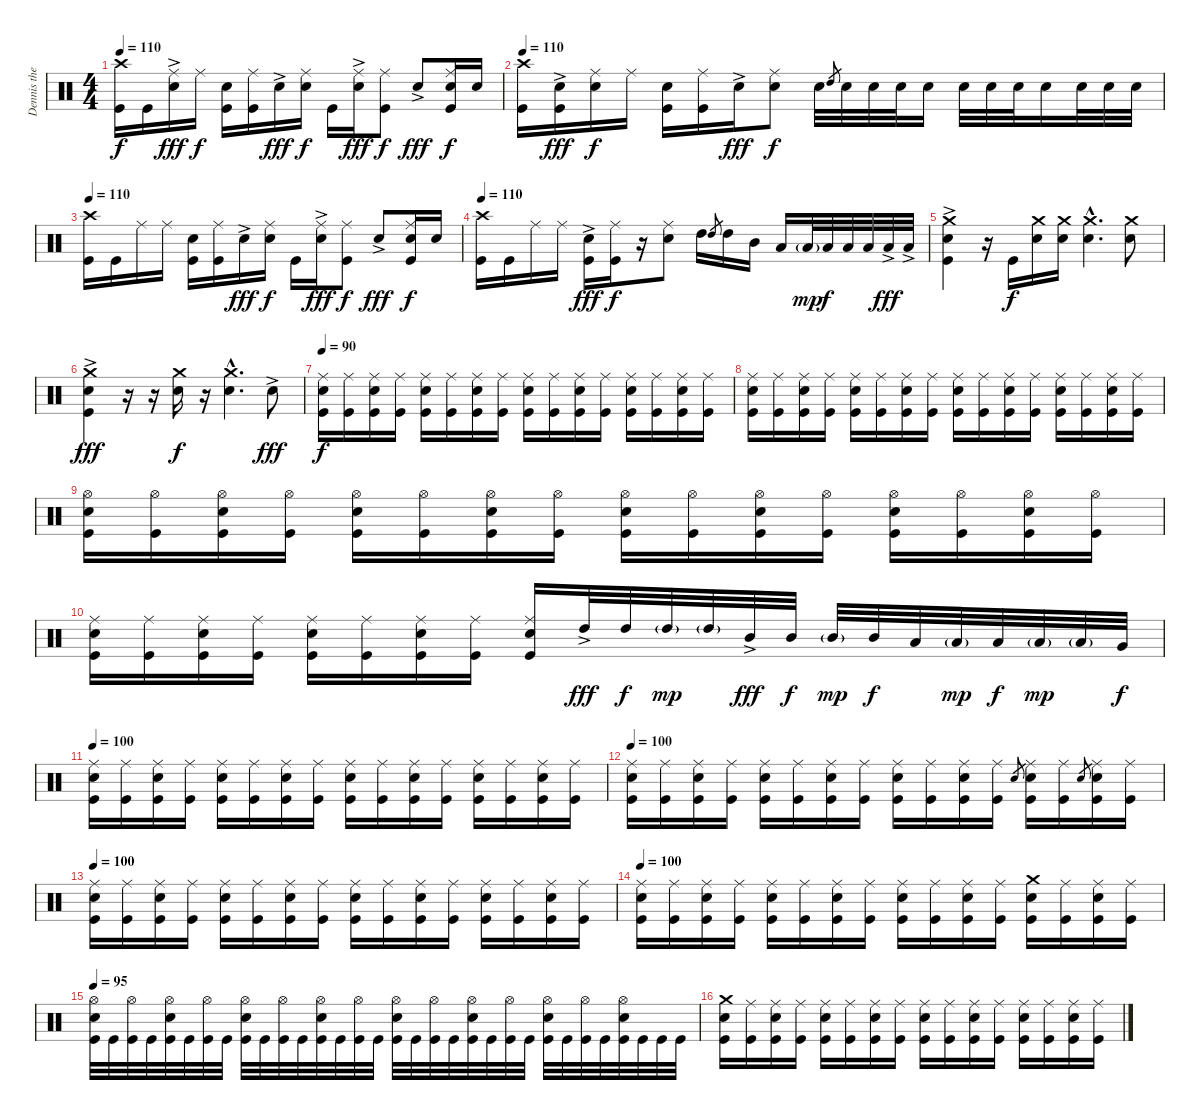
\track ("Dennis the Menace" "Dennis the") {instrument percussion}
\staff {score}
\articulation defaults
\ts (4 4)
\tempo 110
\clef neutral
\ks c
("Crash high (hit)" "Kick (hit)").16{dy f} "Kick (hit)".16 ("Ride (middle)" "Electric Snare (hit)"{ac}).16{dy fff} "Ride (middle)".16{dy f} ("Electric Snare (hit)" "Kick (hit)").16 ("Ride (middle)" "Kick (hit)").16 "Electric Snare (hit)"{ac}.16{dy fff} ("Ride (middle)" "Electric Snare (hit)").16{dy f} "Kick (hit)".16 ("Ride (middle)" "Electric Snare (hit)"{ac}).16{dy fff} ("Ride (middle)" "Kick (hit)").8{dy f} "Electric Snare (hit)"{ac}.8{dy fff} ("Ride (middle)" "Electric Snare (hit)" "Kick (hit)").16{dy f} "Electric Snare (hit)".16 |
\tempo 110
("Crash high (hit)" "Kick (hit)").16 ("Electric Snare (hit)"{ac} "Kick (hit)").16{dy fff} ("Ride (middle)" "Electric Snare (hit)").16{dy f} "Ride (middle)".16 ("Electric Snare (hit)" "Kick (hit)").16 ("Ride (middle)" "Kick (hit)").16 "Electric Snare (hit)"{ac}.16{dy fff} ("Ride (middle)" "Electric Snare (hit)").8{dy f} "Electric Snare (hit)".32 "High Tom (hit)".8{gr} "Electric Snare (hit)".32 "Electric Snare (hit)".32 "Electric Snare (hit)".32 "Electric Snare (hit)".16 "Electric Snare (hit)".32 "Electric Snare (hit)".32 "Electric Snare (hit)".32 "Electric Snare (hit)".16 "Electric Snare (hit)".32 "Electric Snare (hit)".32 "Electric Snare (hit)".32 |
\tempo 110
("Crash high (hit)" "Kick (hit)").16 "Kick (hit)".16 "Ride (middle)".16 "Ride (middle)".16 ("Electric Snare (hit)" "Kick (hit)").16 ("Ride (middle)" "Kick (hit)").16 "Electric Snare (hit)"{ac}.16{dy fff} ("Ride (middle)" "Electric Snare (hit)").16{dy f} "Kick (hit)".16 ("Ride (middle)" "Electric Snare (hit)"{ac}).16{dy fff} ("Ride (middle)" "Kick (hit)").8{dy f} "Electric Snare (hit)"{ac}.8{dy fff} ("Ride (middle)" "Electric Snare (hit)" "Kick (hit)").16{dy f} "Electric Snare (hit)".16 |
\tempo 110
("Crash high (hit)" "Kick (hit)").16 "Kick (hit)".16 "Ride (middle)".16 "Ride (middle)".16 ("Electric Snare (hit)"{ac} "Kick (hit)").16{dy fff} ("Ride (middle)" "Kick (hit)").16{dy f} r.16 ("Ride (middle)" "Electric Snare (hit)").8 "High Tom (hit)".16 "High Tom (hit)".8{gr} "High Tom (hit)".16 "Mid Tom (hit)".16 "Low Tom (hit)".16 "Low Floor Tom (hit)"{g}.32{dy mp} "Low Floor Tom (hit)".32{dy f} "Low Floor Tom (hit)".32 "Low Floor Tom (hit)".32 "Low Floor Tom (hit)"{ac}.32{dy fff} "Low Floor Tom (hit)"{ac}.32 |
("Crash medium (hit)" "Electric Snare (hit)"{ac} "Kick (hit)").4 r.16 "Kick (hit)".16{dy f} ("Crash medium (hit)" "Electric Snare (hit)").16 ("Crash medium (hit)" "Electric Snare (hit)").16 ("Crash medium (hit)"{hac} "Electric Snare (hit)"{hac}).4{d} ("Crash medium (hit)" "Electric Snare (hit)").8 |
("Crash medium (hit)" "Electric Snare (hit)"{ac} "Kick (hit)").4{dy fff} r.16 r.16 ("Crash medium (hit)" "Electric Snare (hit)").16{dy f} r.16 ("Crash medium (hit)"{hac} "Electric Snare (hit)"{hac}).4{d} "Electric Snare (hit)"{ac}.8{dy fff} |
\tempo 90
("Ride (middle)" "Electric Snare (hit)" "Kick (hit)").16{dy f} ("Ride (middle)" "Kick (hit)").16 ("Ride (middle)" "Electric Snare (hit)" "Kick (hit)").16 ("Ride (middle)" "Kick (hit)").16 ("Ride (middle)" "Electric Snare (hit)" "Kick (hit)").16 ("Ride (middle)" "Kick (hit)").16 ("Ride (middle)" "Electric Snare (hit)" "Kick (hit)").16 ("Ride (middle)" "Kick (hit)").16 ("Ride (middle)" "Electric Snare (hit)" "Kick (hit)").16 ("Ride (middle)" "Kick (hit)").16 ("Ride (middle)" "Electric Snare (hit)" "Kick (hit)").16 ("Ride (middle)" "Kick (hit)").16 ("Ride (middle)" "Electric Snare (hit)" "Kick (hit)").16 ("Ride (middle)" "Kick (hit)").16 ("Ride (middle)" "Electric Snare (hit)" "Kick (hit)").16 ("Ride (middle)" "Kick (hit)").16 |
("Ride (middle)" "Electric Snare (hit)" "Kick (hit)").16 ("Ride (middle)" "Kick (hit)").16 ("Ride (middle)" "Electric Snare (hit)" "Kick (hit)").16 ("Ride (middle)" "Kick (hit)").16 ("Ride (middle)" "Electric Snare (hit)" "Kick (hit)").16 ("Ride (middle)" "Kick (hit)").16 ("Ride (middle)" "Electric Snare (hit)" "Kick (hit)").16 ("Ride (middle)" "Kick (hit)").16 ("Ride (middle)" "Electric Snare (hit)" "Kick (hit)").16 ("Ride (middle)" "Kick (hit)").16 ("Ride (middle)" "Electric Snare (hit)" "Kick (hit)").16 ("Ride (middle)" "Kick (hit)").16 ("Ride (middle)" "Electric Snare (hit)" "Kick (hit)").16 ("Ride (middle)" "Kick (hit)").16 ("Ride (middle)" "Electric Snare (hit)" "Kick (hit)").16 ("Ride (middle)" "Kick (hit)").16 |
("Hi-Hat (open)" "Electric Snare (hit)" "Kick (hit)").16 ("Hi-Hat (open)" "Kick (hit)").16 ("Hi-Hat (open)" "Electric Snare (hit)" "Kick (hit)").16 ("Hi-Hat (open)" "Kick (hit)").16 ("Hi-Hat (open)" "Electric Snare (hit)" "Kick (hit)").16 ("Hi-Hat (open)" "Kick (hit)").16 ("Hi-Hat (open)" "Electric Snare (hit)" "Kick (hit)").16 ("Hi-Hat (open)" "Kick (hit)").16 ("Hi-Hat (open)" "Electric Snare (hit)" "Kick (hit)").16 ("Hi-Hat (open)" "Kick (hit)").16 ("Hi-Hat (open)" "Electric Snare (hit)" "Kick (hit)").16 ("Hi-Hat (open)" "Kick (hit)").16 ("Hi-Hat (open)" "Electric Snare (hit)" "Kick (hit)").16 ("Hi-Hat (open)" "Kick (hit)").16 ("Hi-Hat (open)" "Electric Snare (hit)" "Kick (hit)").16 ("Hi-Hat (open)" "Kick (hit)").16 |
("Ride (middle)" "Electric Snare (hit)" "Kick (hit)").16 ("Ride (middle)" "Kick (hit)").16 ("Ride (middle)" "Electric Snare (hit)" "Kick (hit)").16 ("Ride (middle)" "Kick (hit)").16 ("Ride (middle)" "Electric Snare (hit)" "Kick (hit)").16 ("Ride (middle)" "Kick (hit)").16 ("Ride (middle)" "Electric Snare (hit)" "Kick (hit)").16 ("Ride (middle)" "Kick (hit)").16 ("Ride (middle)" "Electric Snare (hit)" "Kick (hit)").16 "High Tom (hit)"{ac}.32{dy fff} "High Tom (hit)".32{dy f} "High Tom (hit)"{g}.32{dy mp} "High Tom (hit)"{g}.32 "Mid Tom (hit)"{ac}.32{dy fff} "Mid Tom (hit)".32{dy f} "Mid Tom (hit)"{g}.32{dy mp} "Mid Tom (hit)".32{dy f} "Low Tom (hit)".32 "Low Tom (hit)"{g}.32{dy mp} "Low Tom (hit)".32{dy f} "Low Tom (hit)"{g}.32{dy mp} "Low Tom (hit)"{g}.32 "Very Low Tom (hit)".32{dy f} |
\tempo 100
("Ride (middle)" "Electric Snare (hit)" "Kick (hit)").16 ("Ride (middle)" "Kick (hit)").16 ("Ride (middle)" "Electric Snare (hit)" "Kick (hit)").16 ("Ride (middle)" "Kick (hit)").16 ("Ride (middle)" "Electric Snare (hit)" "Kick (hit)").16 ("Ride (middle)" "Kick (hit)").16 ("Ride (middle)" "Electric Snare (hit)" "Kick (hit)").16 ("Ride (middle)" "Kick (hit)").16 ("Ride (middle)" "Electric Snare (hit)" "Kick (hit)").16 ("Ride (middle)" "Kick (hit)").16 ("Ride (middle)" "Electric Snare (hit)" "Kick (hit)").16 ("Ride (middle)" "Kick (hit)").16 ("Ride (middle)" "Electric Snare (hit)" "Kick (hit)").16 ("Ride (middle)" "Kick (hit)").16 ("Ride (middle)" "Electric Snare (hit)" "Kick (hit)").16 ("Ride (middle)" "Kick (hit)").16 |
\tempo 100
("Ride (middle)" "Electric Snare (hit)" "Kick (hit)").16 ("Ride (middle)" "Kick (hit)").16 ("Ride (middle)" "Electric Snare (hit)" "Kick (hit)").16 ("Ride (middle)" "Kick (hit)").16 ("Ride (middle)" "Electric Snare (hit)" "Kick (hit)").16 ("Ride (middle)" "Kick (hit)").16 ("Ride (middle)" "Electric Snare (hit)" "Kick (hit)").16 ("Ride (middle)" "Kick (hit)").16 ("Ride (middle)" "Electric Snare (hit)" "Kick (hit)").16 ("Ride (middle)" "Kick (hit)").16 ("Ride (middle)" "Electric Snare (hit)" "Kick (hit)").16 ("Ride (middle)" "Kick (hit)").16 "Electric Snare (hit)".8{gr} ("Ride (middle)" "Electric Snare (hit)" "Kick (hit)").16 ("Ride (middle)" "Kick (hit)").16 "Electric Snare (hit)".8{gr} ("Ride (middle)" "Electric Snare (hit)" "Kick (hit)").16 ("Ride (middle)" "Kick (hit)").16 |
\tempo 100
("Ride (middle)" "Electric Snare (hit)" "Kick (hit)").16 ("Ride (middle)" "Kick (hit)").16 ("Ride (middle)" "Electric Snare (hit)" "Kick (hit)").16 ("Ride (middle)" "Kick (hit)").16 ("Ride (middle)" "Electric Snare (hit)" "Kick (hit)").16 ("Ride (middle)" "Kick (hit)").16 ("Ride (middle)" "Electric Snare (hit)" "Kick (hit)").16 ("Ride (middle)" "Kick (hit)").16 ("Ride (middle)" "Electric Snare (hit)" "Kick (hit)").16 ("Ride (middle)" "Kick (hit)").16 ("Ride (middle)" "Electric Snare (hit)" "Kick (hit)").16 ("Ride (middle)" "Kick (hit)").16 ("Ride (middle)" "Electric Snare (hit)" "Kick (hit)").16 ("Ride (middle)" "Kick (hit)").16 ("Ride (middle)" "Electric Snare (hit)" "Kick (hit)").16 ("Ride (middle)" "Kick (hit)").16 |
\tempo 100
("Ride (middle)" "Electric Snare (hit)" "Kick (hit)").16 ("Ride (middle)" "Kick (hit)").16 ("Ride (middle)" "Electric Snare (hit)" "Kick (hit)").16 ("Ride (middle)" "Kick (hit)").16 ("Ride (middle)" "Electric Snare (hit)" "Kick (hit)").16 ("Ride (middle)" "Kick (hit)").16 ("Ride (middle)" "Electric Snare (hit)" "Kick (hit)").16 ("Ride (middle)" "Kick (hit)").16 ("Ride (middle)" "Electric Snare (hit)" "Kick (hit)").16 ("Ride (middle)" "Kick (hit)").16 ("Ride (middle)" "Electric Snare (hit)" "Kick (hit)").16 ("Ride (middle)" "Kick (hit)").16 ("Crash medium (hit)" "Electric Snare (hit)" "Kick (hit)").16 ("Ride (middle)" "Kick (hit)").16 ("Ride (middle)" "Electric Snare (hit)" "Kick (hit)").16 ("Ride (middle)" "Kick (hit)").16 |
\tempo 95
("Hi-Hat (open)" "Electric Snare (hit)" "Kick (hit)").32 "Kick (hit)".32 ("Hi-Hat (open)" "Kick (hit)").32 "Kick (hit)".32 ("Hi-Hat (open)" "Electric Snare (hit)" "Kick (hit)").32 "Kick (hit)".32 ("Hi-Hat (open)" "Kick (hit)").32 "Kick (hit)".32 ("Hi-Hat (open)" "Electric Snare (hit)" "Kick (hit)").32 "Kick (hit)".32 ("Hi-Hat (open)" "Kick (hit)").32 "Kick (hit)".32 ("Hi-Hat (open)" "Electric Snare (hit)" "Kick (hit)").32 "Kick (hit)".32 ("Hi-Hat (open)" "Kick (hit)").32 "Kick (hit)".32 ("Hi-Hat (open)" "Electric Snare (hit)" "Kick (hit)").32 "Kick (hit)".32 ("Hi-Hat (open)" "Kick (hit)").32 "Kick (hit)".32 ("Hi-Hat (open)" "Electric Snare (hit)" "Kick (hit)").32 "Kick (hit)".32 ("Hi-Hat (open)" "Kick (hit)").32 "Kick (hit)".32 ("Hi-Hat (open)" "Electric Snare (hit)" "Kick (hit)").32 "Kick (hit)".32 ("Hi-Hat (open)" "Kick (hit)").32 "Kick (hit)".32 ("Hi-Hat (open)" "Electric Snare (hit)" "Kick (hit)").32 "Kick (hit)".32 "Kick (hit)".32 "Kick (hit)".32 |
("Crash medium (hit)" "Electric Snare (hit)" "Kick (hit)").16 ("Ride (middle)" "Kick (hit)").16 ("Ride (middle)" "Electric Snare (hit)" "Kick (hit)").16 ("Ride (middle)" "Kick (hit)").16 ("Ride (middle)" "Electric Snare (hit)" "Kick (hit)").16 ("Ride (middle)" "Kick (hit)").16 ("Ride (middle)" "Electric Snare (hit)" "Kick (hit)").16 ("Ride (middle)" "Kick (hit)").16 ("Ride (middle)" "Electric Snare (hit)" "Kick (hit)").16 ("Ride (middle)" "Kick (hit)").16 ("Ride (middle)" "Electric Snare (hit)" "Kick (hit)").16 ("Ride (middle)" "Kick (hit)").16 ("Ride (middle)" "Electric Snare (hit)" "Kick (hit)").16 ("Ride (middle)" "Kick (hit)").16 ("Ride (middle)" "Electric Snare (hit)" "Kick (hit)").16 ("Ride (middle)" "Kick (hit)").16
